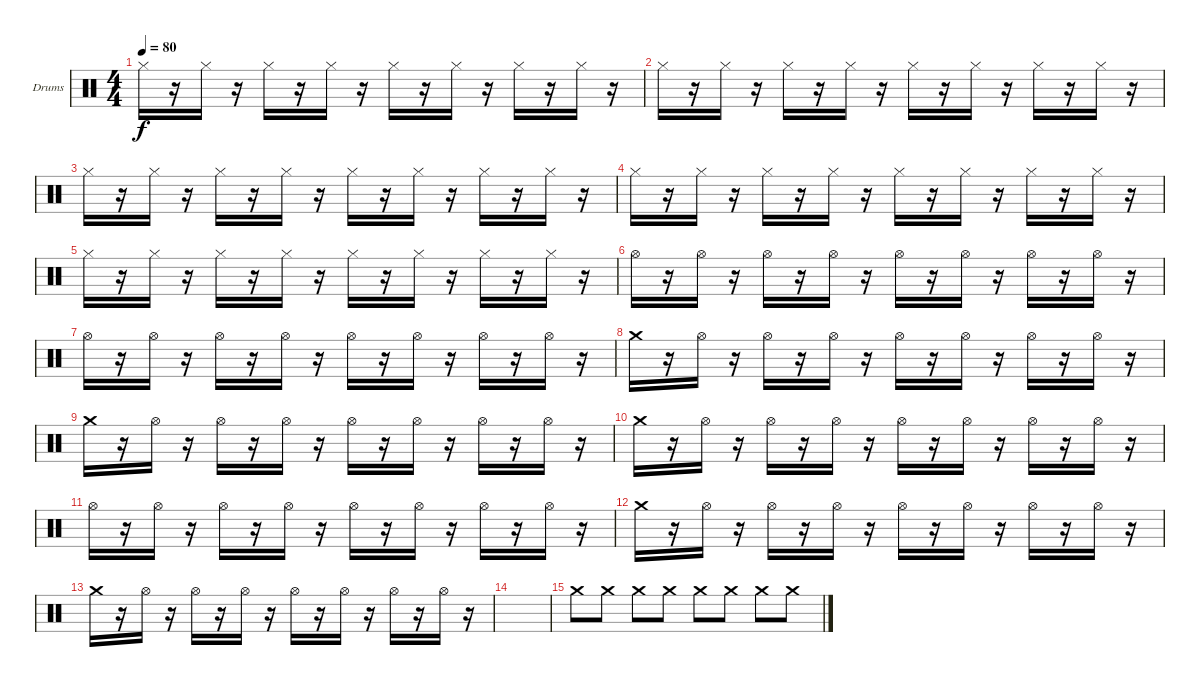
\bracketExtendMode groupsimilarinstruments
\firstSystemTrackNameOrientation horizontal
\otherSystemsTrackNameOrientation horizontal
\track ("Drumkit" "Drums") {instrument percussion}
\staff {score}
\articulation defaults
\ts (4 4)
\tempo 80
\clef neutral
\scale
0.333333
\ks c "Hi-Hat (closed)".16{dy f}
r.16 "Hi-Hat (closed)".16 r.16 "Hi-Hat (closed)".16 r.16 "Hi-Hat (closed)".16 r.16 "Hi-Hat (closed)".16 r.16 "Hi-Hat (closed)".16 r.16 "Hi-Hat (closed)".16 r.16 "Hi-Hat (closed)".16 r.16 |
\scale
0.333333 "Hi-Hat (closed)".16 r.16 "Hi-Hat (closed)".16 r.16 "Hi-Hat (closed)".16 r.16 "Hi-Hat (closed)".16 r.16 "Hi-Hat (closed)".16 r.16 "Hi-Hat (closed)".16 r.16 "Hi-Hat (closed)".16 r.16 "Hi-Hat (closed)".16 r.16 |
\scale
0.333333 "Hi-Hat (closed)".16 r.16 "Hi-Hat (closed)".16 r.16 "Hi-Hat (closed)".16 r.16 "Hi-Hat (closed)".16 r.16 "Hi-Hat (closed)".16 r.16 "Hi-Hat (closed)".16 r.16 "Hi-Hat (closed)".16 r.16 "Hi-Hat (closed)".16 r.16 |
\scale
0.333333 "Hi-Hat (closed)".16 r.16 "Hi-Hat (closed)".16 r.16 "Hi-Hat (closed)".16 r.16 "Hi-Hat (closed)".16 r.16 "Hi-Hat (closed)".16 r.16 "Hi-Hat (closed)".16 r.16 "Hi-Hat (closed)".16 r.16 "Hi-Hat (closed)".16 r.16 |
\scale
0.333333 "Hi-Hat (closed)".16 r.16 "Hi-Hat (closed)".16 r.16 "Hi-Hat (closed)".16 r.16 "Hi-Hat (closed)".16 r.16 "Hi-Hat (closed)".16 r.16 "Hi-Hat (closed)".16 r.16 "Hi-Hat (closed)".16 r.16 "Hi-Hat (closed)".16 r.16 |
\scale
0.333333 "Hi-Hat (open)".16 r.16 "Hi-Hat (open)".16 r.16 "Hi-Hat (open)".16 r.16 "Hi-Hat (open)".16 r.16 "Hi-Hat (open)".16 r.16 "Hi-Hat (open)".16 r.16 "Hi-Hat (open)".16 r.16 "Hi-Hat (open)".16 r.16 |
\scale
0.333333 "Hi-Hat (open)".16 r.16 "Hi-Hat (open)".16 r.16 "Hi-Hat (open)".16 r.16 "Hi-Hat (open)".16 r.16 "Hi-Hat (open)".16 r.16 "Hi-Hat (open)".16 r.16 "Hi-Hat (open)".16 r.16 "Hi-Hat (open)".16 r.16 |
\scale
0.333333 "Crash medium (hit)".16 r.16 "Hi-Hat (open)".16 r.16 "Hi-Hat (open)".16 r.16 "Hi-Hat (open)".16 r.16 "Hi-Hat (open)".16 r.16 "Hi-Hat (open)".16 r.16 "Hi-Hat (open)".16 r.16 "Hi-Hat (open)".16 r.16 |
\scale
0.333333 "Crash medium (hit)".16 r.16 "Hi-Hat (open)".16 r.16 "Hi-Hat (open)".16 r.16 "Hi-Hat (open)".16 r.16 "Hi-Hat (open)".16 r.16 "Hi-Hat (open)".16 r.16 "Hi-Hat (open)".16 r.16 "Hi-Hat (open)".16 r.16 |
\scale
0.333333 "Crash medium (hit)".16 r.16 "Hi-Hat (open)".16 r.16 "Hi-Hat (open)".16 r.16 "Hi-Hat (open)".16 r.16 "Hi-Hat (open)".16 r.16 "Hi-Hat (open)".16 r.16 "Hi-Hat (open)".16 r.16 "Hi-Hat (open)".16 r.16 |
\scale
0.333333 "Hi-Hat (open)".16 r.16 "Hi-Hat (open)".16 r.16 "Hi-Hat (open)".16 r.16 "Hi-Hat (open)".16 r.16 "Hi-Hat (open)".16 r.16 "Hi-Hat (open)".16 r.16 "Hi-Hat (open)".16 r.16 "Hi-Hat (open)".16 r.16 |
\scale
0.333333 "Crash medium (hit)".16 r.16 "Hi-Hat (open)".16 r.16 "Hi-Hat (open)".16 r.16 "Hi-Hat (open)".16 r.16 "Hi-Hat (open)".16 r.16 "Hi-Hat (open)".16 r.16 "Hi-Hat (open)".16 r.16 "Hi-Hat (open)".16 r.16 |
\scale
0.333333 "Crash medium (hit)".16 r.16 "Hi-Hat (open)".16 r.16 "Hi-Hat (open)".16 r.16 "Hi-Hat (open)".16 r.16 "Hi-Hat (open)".16 r.16 "Hi-Hat (open)".16 r.16 "Hi-Hat (open)".16 r.16 "Hi-Hat (open)".16 r.16 |
\scale
0.333333 |
\scale
0.333333 "Crash medium (hit)".8 "Crash medium (hit)".8 "Crash medium (hit)".8 "Crash medium (hit)".8 "Crash medium (hit)".8 "Crash medium (hit)".8 "Crash medium (hit)".8 "Crash medium (hit)".8 |
\scale
0.333333
